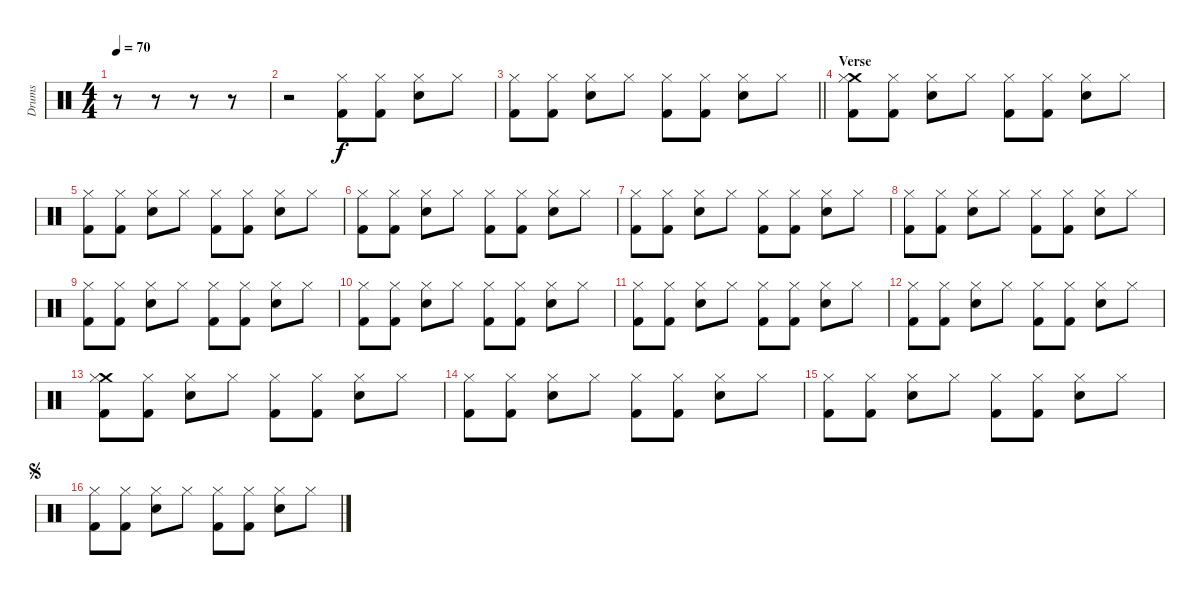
\track ("Drums" "Drums") {instrument percussion bank 177}
\staff {score}
\articulation defaults
\ts (4 4)
\tempo 70
\clef neutral
\ks c
r.8{dy f} r.8 r.8 r.8 |
r.2 ("Kick (hit) 2" "Hi-Hat (closed)").8 ("Hi-Hat (closed)" "Kick (hit) 2").8 ("Hi-Hat (closed)" "Snare (hit) 2").8 "Hi-Hat (closed)".8 |
\barLineRight lightlight
("Kick (hit) 2" "Hi-Hat (closed)").8 ("Hi-Hat (closed)" "Kick (hit) 2").8 ("Hi-Hat (closed)" "Snare (hit) 2").8 "Hi-Hat (closed)".8 ("Kick (hit) 2" "Hi-Hat (closed)").8 ("Hi-Hat (closed)" "Kick (hit) 2").8 ("Hi-Hat (closed)" "Snare (hit) 2").8 "Hi-Hat (closed)".8 |
\section ("" "Verse")
("Kick (hit) 2" "Crash medium (hit)" "Hi-Hat (closed)").8 ("Hi-Hat (closed)" "Kick (hit) 2").8 ("Hi-Hat (closed)" "Snare (hit) 2").8 "Hi-Hat (closed)".8 ("Kick (hit) 2" "Hi-Hat (closed)").8 ("Hi-Hat (closed)" "Kick (hit) 2").8 ("Hi-Hat (closed)" "Snare (hit) 2").8 "Hi-Hat (closed)".8 |
("Kick (hit) 2" "Hi-Hat (closed)").8 ("Hi-Hat (closed)" "Kick (hit) 2").8 ("Hi-Hat (closed)" "Snare (hit) 2").8 "Hi-Hat (closed)".8 ("Kick (hit) 2" "Hi-Hat (closed)").8 ("Hi-Hat (closed)" "Kick (hit) 2").8 ("Hi-Hat (closed)" "Snare (hit) 2").8 "Hi-Hat (closed)".8 |
("Kick (hit) 2" "Hi-Hat (closed)").8 ("Hi-Hat (closed)" "Kick (hit) 2").8 ("Hi-Hat (closed)" "Snare (hit) 2").8 "Hi-Hat (closed)".8 ("Kick (hit) 2" "Hi-Hat (closed)").8 ("Hi-Hat (closed)" "Kick (hit) 2").8 ("Hi-Hat (closed)" "Snare (hit) 2").8 "Hi-Hat (closed)".8 |
("Kick (hit) 2" "Hi-Hat (closed)").8 ("Hi-Hat (closed)" "Kick (hit) 2").8 ("Hi-Hat (closed)" "Snare (hit) 2").8 "Hi-Hat (closed)".8 ("Kick (hit) 2" "Hi-Hat (closed)").8 ("Hi-Hat (closed)" "Kick (hit) 2").8 ("Hi-Hat (closed)" "Snare (hit) 2").8 "Hi-Hat (closed)".8 |
("Kick (hit) 2" "Hi-Hat (closed)").8 ("Hi-Hat (closed)" "Kick (hit) 2").8 ("Hi-Hat (closed)" "Snare (hit) 2").8 "Hi-Hat (closed)".8 ("Kick (hit) 2" "Hi-Hat (closed)").8 ("Hi-Hat (closed)" "Kick (hit) 2").8 ("Hi-Hat (closed)" "Snare (hit) 2").8 "Hi-Hat (closed)".8 |
("Kick (hit) 2" "Hi-Hat (closed)").8 ("Hi-Hat (closed)" "Kick (hit) 2").8 ("Hi-Hat (closed)" "Snare (hit) 2").8 "Hi-Hat (closed)".8 ("Kick (hit) 2" "Hi-Hat (closed)").8 ("Hi-Hat (closed)" "Kick (hit) 2").8 ("Hi-Hat (closed)" "Snare (hit) 2").8 "Hi-Hat (closed)".8 |
("Kick (hit) 2" "Hi-Hat (closed)").8 ("Hi-Hat (closed)" "Kick (hit) 2").8 ("Hi-Hat (closed)" "Snare (hit) 2").8 "Hi-Hat (closed)".8 ("Kick (hit) 2" "Hi-Hat (closed)").8 ("Hi-Hat (closed)" "Kick (hit) 2").8 ("Hi-Hat (closed)" "Snare (hit) 2").8 "Hi-Hat (closed)".8 |
("Kick (hit) 2" "Hi-Hat (closed)").8 ("Hi-Hat (closed)" "Kick (hit) 2").8 ("Hi-Hat (closed)" "Snare (hit) 2").8 "Hi-Hat (closed)".8 ("Kick (hit) 2" "Hi-Hat (closed)").8 ("Hi-Hat (closed)" "Kick (hit) 2").8 ("Hi-Hat (closed)" "Snare (hit) 2").8 "Hi-Hat (closed)".8 |
("Kick (hit) 2" "Hi-Hat (closed)").8 ("Hi-Hat (closed)" "Kick (hit) 2").8 ("Hi-Hat (closed)" "Snare (hit) 2").8 "Hi-Hat (closed)".8 ("Kick (hit) 2" "Hi-Hat (closed)").8 ("Hi-Hat (closed)" "Kick (hit) 2").8 ("Hi-Hat (closed)" "Snare (hit) 2").8 "Hi-Hat (closed)".8 |
("Kick (hit) 2" "Crash medium (hit)" "Hi-Hat (closed)").8 ("Hi-Hat (closed)" "Kick (hit) 2").8 ("Hi-Hat (closed)" "Snare (hit) 2").8 "Hi-Hat (closed)".8 ("Kick (hit) 2" "Hi-Hat (closed)").8 ("Hi-Hat (closed)" "Kick (hit) 2").8 ("Hi-Hat (closed)" "Snare (hit) 2").8 "Hi-Hat (closed)".8 |
("Kick (hit) 2" "Hi-Hat (closed)").8 ("Hi-Hat (closed)" "Kick (hit) 2").8 ("Hi-Hat (closed)" "Snare (hit) 2").8 "Hi-Hat (closed)".8 ("Kick (hit) 2" "Hi-Hat (closed)").8 ("Hi-Hat (closed)" "Kick (hit) 2").8 ("Hi-Hat (closed)" "Snare (hit) 2").8 "Hi-Hat (closed)".8 |
("Kick (hit) 2" "Hi-Hat (closed)").8 ("Hi-Hat (closed)" "Kick (hit) 2").8 ("Hi-Hat (closed)" "Snare (hit) 2").8 "Hi-Hat (closed)".8 ("Kick (hit) 2" "Hi-Hat (closed)").8 ("Hi-Hat (closed)" "Kick (hit) 2").8 ("Hi-Hat (closed)" "Snare (hit) 2").8 "Hi-Hat (closed)".8 |
\jump segno
("Kick (hit) 2" "Hi-Hat (closed)").8 ("Hi-Hat (closed)" "Kick (hit) 2").8 ("Hi-Hat (closed)" "Snare (hit) 2").8 "Hi-Hat (closed)".8 ("Kick (hit) 2" "Hi-Hat (closed)").8 ("Hi-Hat (closed)" "Kick (hit) 2").8 ("Hi-Hat (closed)" "Snare (hit) 2").8 "Hi-Hat (closed)".8
